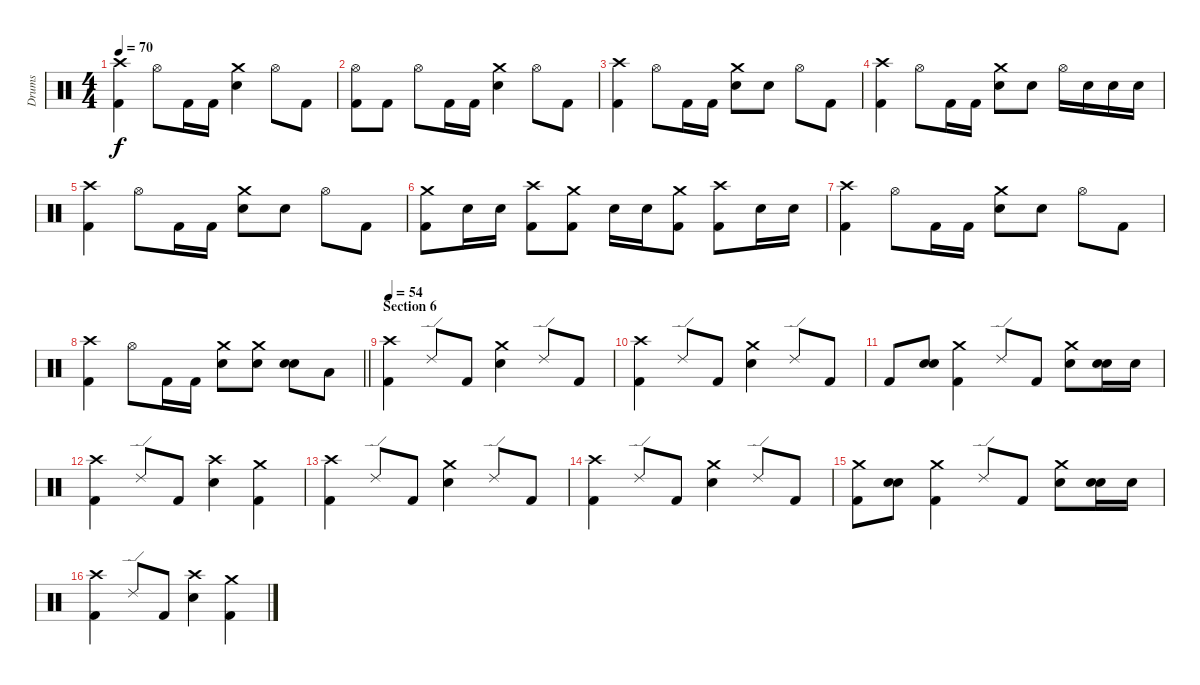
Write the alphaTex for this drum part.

\track ("Drums" "Drums") {instrument percussion}
\staff {score}
\articulation defaults
\ts (4 4)
\tempo 70
\clef neutral
\ks c
("Crash high (hit)" "Kick (hit) 2").4{dy f} "Hi-Hat (open)".8 "Kick (hit) 2".16 "Kick (hit) 2".16 ("Crash medium (hit)" "Electric Snare (hit)").4 "Hi-Hat (open)".8 "Kick (hit) 2".8 |
("Hi-Hat (open)" "Kick (hit) 2").8 "Kick (hit) 2".8 "Hi-Hat (open)".8 "Kick (hit) 2".16 "Kick (hit) 2".16 ("Crash medium (hit)" "Electric Snare (hit)").4 "Hi-Hat (open)".8 "Kick (hit) 2".8 |
("Crash high (hit)" "Kick (hit) 2").4 "Hi-Hat (open)".8 "Kick (hit) 2".16 "Kick (hit) 2".16 ("Crash medium (hit)" "Electric Snare (hit)").8 "Electric Snare (hit)".8 "Hi-Hat (open)".8 "Kick (hit) 2".8 |
("Crash high (hit)" "Kick (hit) 2").4 "Hi-Hat (open)".8 "Kick (hit) 2".16 "Kick (hit) 2".16 ("Crash medium (hit)" "Electric Snare (hit)").8 "Electric Snare (hit)".8 "Hi-Hat (open)".16 "Electric Snare (hit)".16 "Electric Snare (hit)".16 "Electric Snare (hit)".16 |
("Crash high (hit)" "Kick (hit) 2").4 "Hi-Hat (open)".8 "Kick (hit) 2".16 "Kick (hit) 2".16 ("Crash medium (hit)" "Electric Snare (hit)").8 "Electric Snare (hit)".8 "Hi-Hat (open)".8 "Kick (hit) 2".8 |
("Crash medium (hit)" "Kick (hit) 2").8 "Electric Snare (hit)".16 "Electric Snare (hit)".16 ("Crash high (hit)" "Kick (hit) 2").8 ("Crash medium (hit)" "Kick (hit) 2").8 "Electric Snare (hit)".16 "Electric Snare (hit)".16 ("Crash medium (hit)" "Kick (hit) 2").8 ("Crash high (hit)" "Kick (hit) 2").8 "Electric Snare (hit)".16 "Electric Snare (hit)".16 |
("Crash high (hit)" "Kick (hit) 2").4 "Hi-Hat (open)".8 "Kick (hit) 2".16 "Kick (hit) 2".16 ("Crash medium (hit)" "Electric Snare (hit)").8 "Electric Snare (hit)".8 "Hi-Hat (open)".8 "Kick (hit) 2".8 |
\barLineRight lightlight
("Crash high (hit)" "Kick (hit) 2").4 "Hi-Hat (open)".8 "Kick (hit) 2".16 "Kick (hit) 2".16 ("Crash medium (hit)" "Electric Snare (hit)").8 ("Crash medium (hit)" "Electric Snare (hit)").8 ("Electric Snare (hit)" "Electric Snare (hit)").8{bu 60} "Low Tom (hit)".8 |
\section ("" "Section 6")
\tempo 54
("Crash high (hit)" "Kick (hit) 2").4 "Ride (edge) 2".8 "Kick (hit) 2".8 ("Crash medium (hit)" "Electric Snare (hit)").4 "Ride (edge) 2".8 "Kick (hit) 2".8 |
("Crash high (hit)" "Kick (hit) 2").4 "Ride (edge) 2".8 "Kick (hit) 2".8 ("Crash medium (hit)" "Electric Snare (hit)").4 "Ride (edge) 2".8 "Kick (hit) 2".8 |
"Kick (hit) 2".8 ("Electric Snare (hit)" "Electric Snare (hit)").8{bu 60} ("Crash medium (hit)" "Kick (hit) 2").4 "Ride (edge) 2".8 "Kick (hit) 2".8 ("Crash medium (hit)" "Electric Snare (hit)").8 ("Electric Snare (hit)" "Electric Snare (hit)").16{bu 60} "Electric Snare (hit)".16 |
("Crash high (hit)" "Kick (hit) 2").4 "Ride (edge) 2".8 "Kick (hit) 2".8 ("Crash high (hit)" "Electric Snare (hit)").4 ("Crash medium (hit)" "Kick (hit) 2").4 |
("Crash high (hit)" "Kick (hit) 2").4 "Ride (edge) 2".8 "Kick (hit) 2".8 ("Crash medium (hit)" "Electric Snare (hit)").4 "Ride (edge) 2".8 "Kick (hit) 2".8 |
("Crash high (hit)" "Kick (hit) 2").4 "Ride (edge) 2".8 "Kick (hit) 2".8 ("Crash medium (hit)" "Electric Snare (hit)").4 "Ride (edge) 2".8 "Kick (hit) 2".8 |
("Crash medium (hit)" "Kick (hit) 2").8 ("Electric Snare (hit)" "Electric Snare (hit)").8{bu 60} ("Crash medium (hit)" "Kick (hit) 2").4 "Ride (edge) 2".8 "Kick (hit) 2".8 ("Crash medium (hit)" "Electric Snare (hit)").8 ("Electric Snare (hit)" "Electric Snare (hit)").16{bu 60} "Electric Snare (hit)".16 |
("Crash high (hit)" "Kick (hit) 2").4 "Ride (edge) 2".8 "Kick (hit) 2".8 ("Crash high (hit)" "Electric Snare (hit)").4 ("Crash medium (hit)" "Kick (hit) 2").4
